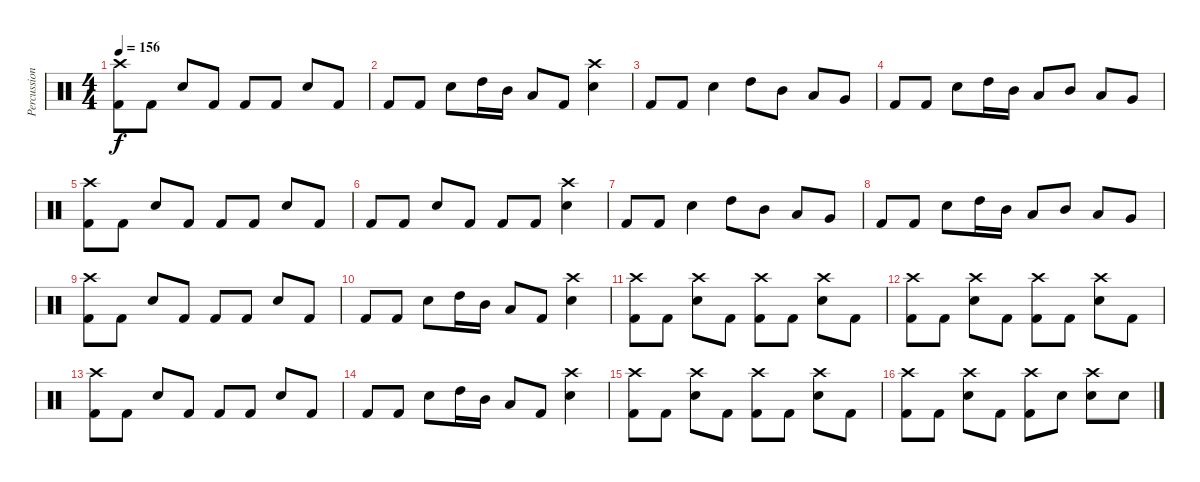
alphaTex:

\track ("Percussion" "Percussion") {instrument percussion}
\staff {score}
\articulation defaults
\ts (4 4)
\tempo 156
\clef neutral
\ks c
("Crash high (hit)" "Kick (hit) 2").8{dy f} "Kick (hit) 2".8 "Electric Snare (hit)".8 "Kick (hit) 2".8 "Kick (hit) 2".8 "Kick (hit) 2".8 "Electric Snare (hit)".8 "Kick (hit) 2".8 |
"Kick (hit) 2".8 "Kick (hit) 2".8 "Electric Snare (hit)".8 "High Tom (hit)".16 "Mid Tom (hit)".16 "Low Tom (hit)".8 "Kick (hit) 2".8 ("Crash high (hit)" "Electric Snare (hit)").4 |
"Kick (hit) 2".8 "Kick (hit) 2".8 "Electric Snare (hit)".4 "High Tom (hit)".8 "Mid Tom (hit)".8 "Low Tom (hit)".8 "Very Low Tom (hit)".8 |
"Kick (hit) 2".8 "Kick (hit) 2".8 "Electric Snare (hit)".8 "High Tom (hit)".16 "Mid Tom (hit)".16 "Low Tom (hit)".8 "Mid Tom (hit)".8 "Low Tom (hit)".8 "Very Low Tom (hit)".8 |
("Crash high (hit)" "Kick (hit) 2").8 "Kick (hit) 2".8 "Electric Snare (hit)".8 "Kick (hit) 2".8 "Kick (hit) 2".8 "Kick (hit) 2".8 "Electric Snare (hit)".8 "Kick (hit) 2".8 |
"Kick (hit) 2".8 "Kick (hit) 2".8 "Electric Snare (hit)".8 "Kick (hit) 2".8 "Kick (hit) 2".8 "Kick (hit) 2".8 ("Crash high (hit)" "Electric Snare (hit)").4 |
"Kick (hit) 2".8 "Kick (hit) 2".8 "Electric Snare (hit)".4 "High Tom (hit)".8 "Mid Tom (hit)".8 "Low Tom (hit)".8 "Very Low Tom (hit)".8 |
"Kick (hit) 2".8 "Kick (hit) 2".8 "Electric Snare (hit)".8 "High Tom (hit)".16 "Mid Tom (hit)".16 "Low Tom (hit)".8 "Mid Tom (hit)".8 "Low Tom (hit)".8 "Very Low Tom (hit)".8 |
("Crash high (hit)" "Kick (hit) 2").8 "Kick (hit) 2".8 "Electric Snare (hit)".8 "Kick (hit) 2".8 "Kick (hit) 2".8 "Kick (hit) 2".8 "Electric Snare (hit)".8 "Kick (hit) 2".8 |
"Kick (hit) 2".8 "Kick (hit) 2".8 "Electric Snare (hit)".8 "High Tom (hit)".16 "Mid Tom (hit)".16 "Low Tom (hit)".8 "Kick (hit) 2".8 ("Crash high (hit)" "Electric Snare (hit)").4 |
("Crash high (hit)" "Kick (hit) 2").8 "Kick (hit) 2".8 ("Crash high (hit)" "Electric Snare (hit)").8 "Kick (hit) 2".8 ("Crash high (hit)" "Kick (hit) 2").8 "Kick (hit) 2".8 ("Crash high (hit)" "Electric Snare (hit)").8 "Kick (hit) 2".8 |
("Crash high (hit)" "Kick (hit) 2").8 "Kick (hit) 2".8 ("Crash high (hit)" "Electric Snare (hit)").8 "Kick (hit) 2".8 ("Crash high (hit)" "Kick (hit) 2").8 "Kick (hit) 2".8 ("Crash high (hit)" "Electric Snare (hit)").8 "Kick (hit) 2".8 |
("Crash high (hit)" "Kick (hit) 2").8 "Kick (hit) 2".8 "Electric Snare (hit)".8 "Kick (hit) 2".8 "Kick (hit) 2".8 "Kick (hit) 2".8 "Electric Snare (hit)".8 "Kick (hit) 2".8 |
"Kick (hit) 2".8 "Kick (hit) 2".8 "Electric Snare (hit)".8 "High Tom (hit)".16 "Mid Tom (hit)".16 "Low Tom (hit)".8 "Kick (hit) 2".8 ("Crash high (hit)" "Electric Snare (hit)").4 |
("Crash high (hit)" "Kick (hit) 2").8 "Kick (hit) 2".8 ("Crash high (hit)" "Electric Snare (hit)").8 "Kick (hit) 2".8 ("Crash high (hit)" "Kick (hit) 2").8 "Kick (hit) 2".8 ("Crash high (hit)" "Electric Snare (hit)").8 "Kick (hit) 2".8 |
("Crash high (hit)" "Kick (hit) 2").8 "Kick (hit) 2".8 ("Crash high (hit)" "Electric Snare (hit)").8 "Kick (hit) 2".8 ("Crash high (hit)" "Kick (hit) 2").8 "Electric Snare (hit)".8 ("Crash high (hit)" "Electric Snare (hit)").8 "Electric Snare (hit)".8
